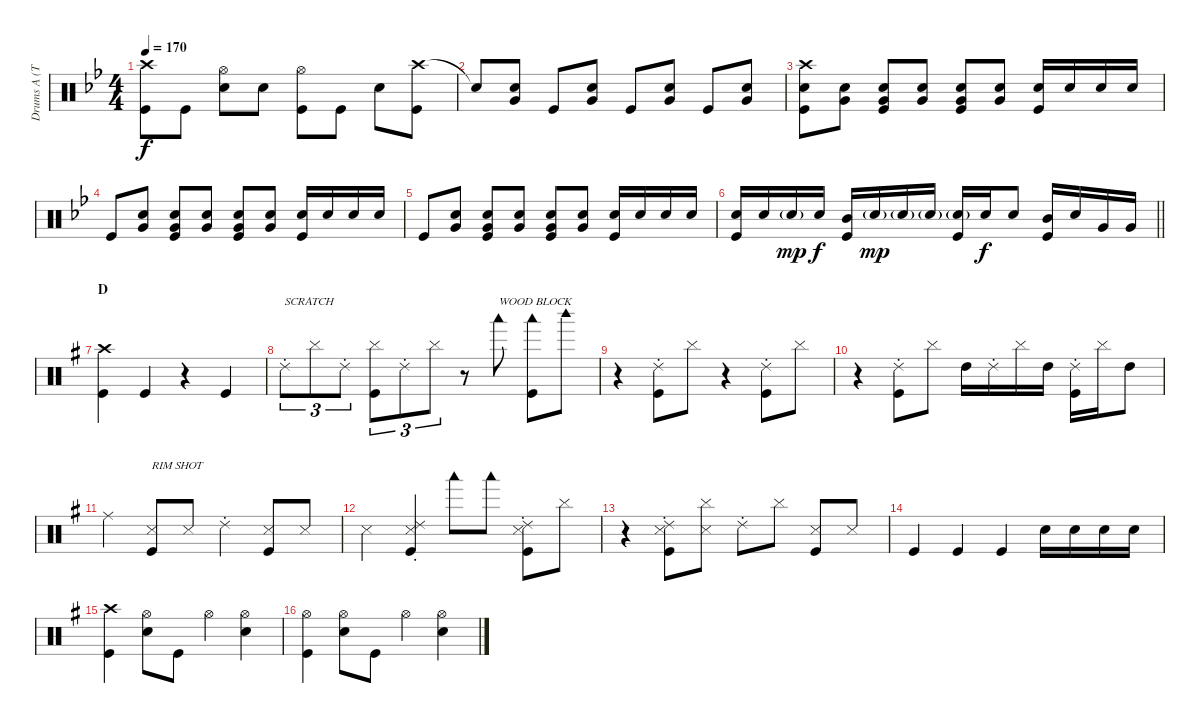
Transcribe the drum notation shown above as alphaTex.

\track ("Drums A (Tainaka Ritsu)" "Drums A (T") {instrument percussion}
\staff {score}
\articulation defaults
\ts (4 4)
\tempo 170
\clef neutral
\ks bb
("Crash high (hit)" "Kick (hit)").8{dy f} "Kick (hit)".8 ("Hi-Hat (open)" "Snare (hit) 2").8 "Snare (hit) 2".8 ("Hi-Hat (open)" "Kick (hit)").8 "Kick (hit)".8 "Snare (hit) 2".8 ("Crash high (hit)" "Kick (hit)").8 |
"Snare (hit)"{t}.8 ("Snare (hit) 2" "Very Low Tom (hit)").8 "Kick (hit)".8 ("Snare (hit) 2" "Very Low Tom (hit)").8 "Kick (hit)".8 ("Snare (hit) 2" "Very Low Tom (hit)").8 "Kick (hit)".8 ("Snare (hit) 2" "Very Low Tom (hit)").8 |
("Crash high (hit)" "Snare (hit) 2" "Kick (hit)").8 ("Snare (hit) 2" "Very Low Tom (hit)").8 ("Snare (hit) 2" "Very Low Tom (hit)" "Kick (hit)").8 ("Snare (hit) 2" "Very Low Tom (hit)").8 ("Snare (hit) 2" "Very Low Tom (hit)" "Kick (hit)").8 ("Snare (hit) 2" "Very Low Tom (hit)").8 ("Snare (hit) 2" "Kick (hit)").16 "Snare (hit) 2".16 "Snare (hit) 2".16 "Snare (hit) 2".16 |
"Kick (hit)".8 ("Snare (hit) 2" "Very Low Tom (hit)").8 ("Snare (hit) 2" "Very Low Tom (hit)" "Kick (hit)").8 ("Snare (hit) 2" "Very Low Tom (hit)").8 ("Snare (hit) 2" "Very Low Tom (hit)" "Kick (hit)").8 ("Snare (hit) 2" "Very Low Tom (hit)").8 ("Snare (hit) 2" "Kick (hit)").16 "Snare (hit) 2".16 "Snare (hit) 2".16 "Snare (hit) 2".16 |
"Kick (hit)".8 ("Snare (hit) 2" "Very Low Tom (hit)").8 ("Snare (hit) 2" "Very Low Tom (hit)" "Kick (hit)").8 ("Snare (hit) 2" "Very Low Tom (hit)").8 ("Snare (hit) 2" "Very Low Tom (hit)" "Kick (hit)").8 ("Snare (hit) 2" "Very Low Tom (hit)").8 ("Snare (hit) 2" "Kick (hit)").16 "Snare (hit) 2".16 "Snare (hit) 2".16 "Snare (hit) 2".16 |
\barLineRight lightlight
("Snare (hit) 2" "Kick (hit)").16 "Snare (hit) 2".16 "Snare (hit) 2"{g}.16{dy mp} "Snare (hit) 2".16{dy f} ("Mid Tom (hit)" "Kick (hit)").16 "Snare (hit) 2"{g}.16{dy mp} "Snare (hit) 2"{g}.16 "Snare (hit) 2"{g}.16 ("Snare (hit) 2"{g} "Kick (hit)").16 "Snare (hit) 2".16{dy f} "Snare (hit) 2".8 ("Mid Tom (hit)" "Kick (hit)").16 "Snare (hit) 2".16 "Very Low Tom (hit)".16 "Very Low Tom (hit)".16 |
\section ("" "D")
\ks g
("Crash high (hit)" "Kick (hit)").4 "Kick (hit)".4 r.4 "Kick (hit)".4 |
"Ride (choke) 2".8{tu (3 2) txt "SCRATCH"} "Cymbal (hit)".8{tu (3 2)} "Ride (choke) 2".8{tu (3 2)} ("Cymbal (hit)" "Kick (hit)").8{tu (3 2)} "Ride (choke) 2".8{tu (3 2)} "Cymbal (hit)".8{tu (3 2)} r.8 "Woodblock low (hit)".8{txt "WOOD BLOCK"} ("Woodblock low (hit)" "Kick (hit)").8 "Woodblock high (hit)".8 |
r.4 ("Ride (choke) 2" "Kick (hit)").8 "Cymbal (hit)".8 r.4 ("Ride (choke) 2" "Kick (hit)").8 "Cymbal (hit)".8 |
r.4 ("Ride (choke) 2" "Kick (hit)").8 "Cymbal (hit)".8 "High Tom (hit)".16 "Ride (choke) 2".16 "Cymbal (hit)".16 "High Tom (hit)".16 ("Ride (choke) 2" "Kick (hit)").16 "Cymbal (hit)".16 "High Tom (hit)".8 |
"Ride (middle)".4 ("Snare (side stick) 3" "Kick (hit)").8{txt "RIM SHOT"} "Snare (side stick) 3".8 "Ride (choke) 2".4 ("Snare (side stick) 3" "Kick (hit)").8 "Snare (side stick) 3".8 |
"Snare (side stick) 3".4 ("Ride (choke) 2" "Snare (side stick) 3" "Kick (hit)").4 "Woodblock low (hit)".8 "Woodblock low (hit)".8 ("Ride (choke) 2" "Snare (side stick) 3" "Kick (hit)").8 "Cymbal (hit)".8 |
r.4 ("Ride (choke) 2" "Snare (side stick) 3" "Kick (hit)").8 ("Cymbal (hit)" "Snare (side stick) 3").8 "Ride (choke) 2".8 "Cymbal (hit)".8 ("Snare (side stick) 3" "Kick (hit)").8 "Snare (side stick) 3".8 |
"Kick (hit)".4 "Kick (hit)".4 "Kick (hit)".4 "Snare (hit) 2".16 "Snare (hit) 2".16 "Snare (hit) 2".16 "Snare (hit) 2".16 |
("Crash high (hit)" "Kick (hit)").4 ("Hi-Hat (open)" "Snare (hit) 2").8 "Kick (hit)".8 "Hi-Hat (open)".4 ("Hi-Hat (open)" "Snare (hit) 2").4 |
("Hi-Hat (open)" "Kick (hit)").4 ("Hi-Hat (open)" "Snare (hit) 2").8 "Kick (hit)".8 "Hi-Hat (open)".4 ("Hi-Hat (open)" "Snare (hit) 2").4
